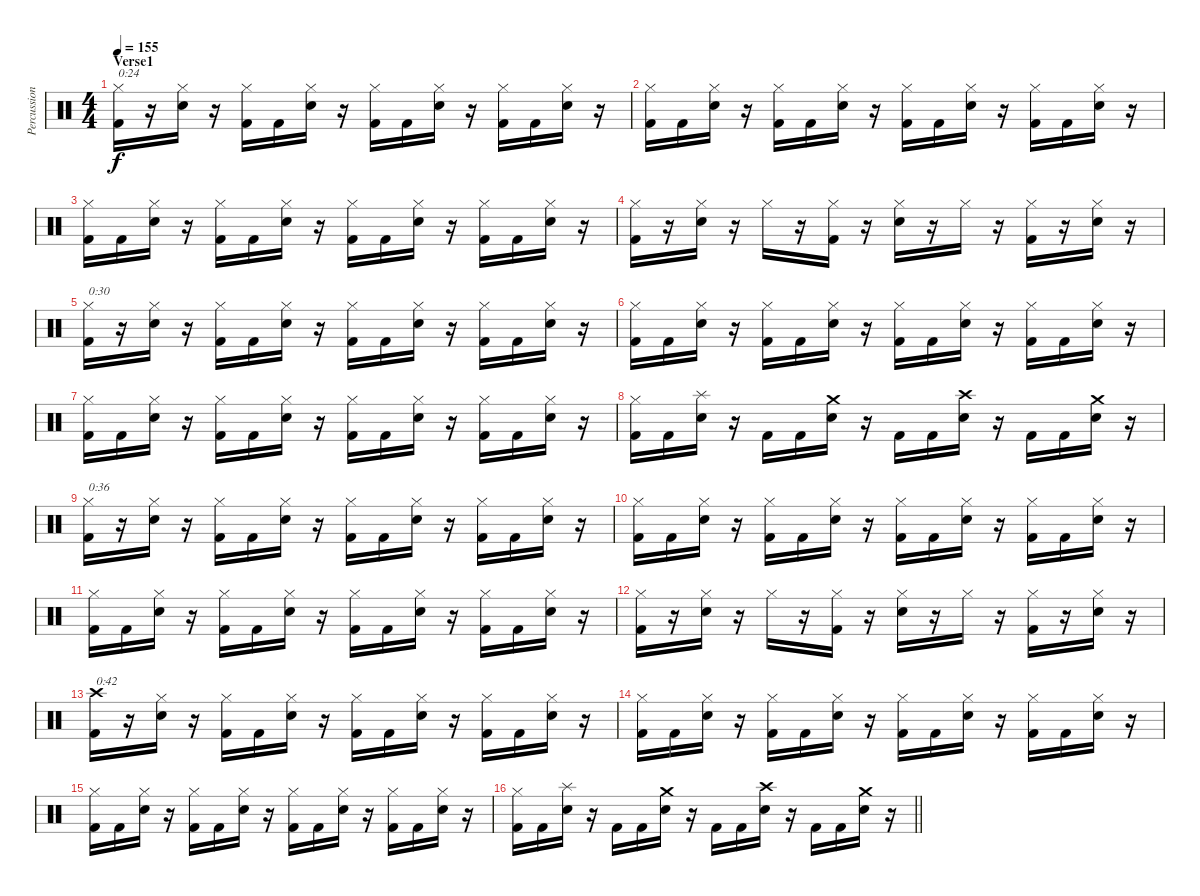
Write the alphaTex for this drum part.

\track ("Percussion" "Percussion") {instrument percussion}
\staff {score}
\articulation defaults
\ts (4 4)
\section ("" "Verse1")
\tempo 155
\clef neutral
\ks c
("Hi-Hat (closed)" "Kick (hit) 2").16{txt "0:24" dy f} r.16 ("Hi-Hat (closed)" "Electric Snare (hit)").16 r.16 ("Hi-Hat (closed)" "Kick (hit) 2").16 "Kick (hit) 2".16 ("Hi-Hat (closed)" "Electric Snare (hit)").16 r.16 ("Hi-Hat (closed)" "Kick (hit) 2").16 "Kick (hit) 2".16 ("Hi-Hat (closed)" "Electric Snare (hit)").16 r.16 ("Hi-Hat (closed)" "Kick (hit) 2").16 "Kick (hit) 2".16 ("Hi-Hat (closed)" "Electric Snare (hit)").16 r.16 |
("Hi-Hat (closed)" "Kick (hit) 2").16 "Kick (hit) 2".16 ("Hi-Hat (closed)" "Electric Snare (hit)").16 r.16 ("Hi-Hat (closed)" "Kick (hit) 2").16 "Kick (hit) 2".16 ("Hi-Hat (closed)" "Electric Snare (hit)").16 r.16 ("Hi-Hat (closed)" "Kick (hit) 2").16 "Kick (hit) 2".16 ("Hi-Hat (closed)" "Electric Snare (hit)").16 r.16 ("Hi-Hat (closed)" "Kick (hit) 2").16 "Kick (hit) 2".16 ("Hi-Hat (closed)" "Electric Snare (hit)").16 r.16 |
("Hi-Hat (closed)" "Kick (hit) 2").16 "Kick (hit) 2".16 ("Hi-Hat (closed)" "Electric Snare (hit)").16 r.16 ("Hi-Hat (closed)" "Kick (hit) 2").16 "Kick (hit) 2".16 ("Hi-Hat (closed)" "Electric Snare (hit)").16 r.16 ("Hi-Hat (closed)" "Kick (hit) 2").16 "Kick (hit) 2".16 ("Hi-Hat (closed)" "Electric Snare (hit)").16 r.16 ("Hi-Hat (closed)" "Kick (hit) 2").16 "Kick (hit) 2".16 ("Hi-Hat (closed)" "Electric Snare (hit)").16 r.16 |
("Hi-Hat (closed)" "Kick (hit) 2").16 r.16 ("Hi-Hat (closed)" "Electric Snare (hit)").16 r.16 "Hi-Hat (closed)".16 r.16 ("Hi-Hat (closed)" "Kick (hit) 2").16 r.16 ("Hi-Hat (closed)" "Electric Snare (hit)").16 r.16 "Hi-Hat (closed)".16 r.16 ("Hi-Hat (closed)" "Kick (hit) 2").16 r.16 ("Hi-Hat (closed)" "Electric Snare (hit)").16 r.16 |
("Hi-Hat (closed)" "Kick (hit) 2").16{txt "0:30"} r.16 ("Hi-Hat (closed)" "Electric Snare (hit)").16 r.16 ("Hi-Hat (closed)" "Kick (hit) 2").16 "Kick (hit) 2".16 ("Hi-Hat (closed)" "Electric Snare (hit)").16 r.16 ("Hi-Hat (closed)" "Kick (hit) 2").16 "Kick (hit) 2".16 ("Hi-Hat (closed)" "Electric Snare (hit)").16 r.16 ("Hi-Hat (closed)" "Kick (hit) 2").16 "Kick (hit) 2".16 ("Hi-Hat (closed)" "Electric Snare (hit)").16 r.16 |
("Hi-Hat (closed)" "Kick (hit) 2").16 "Kick (hit) 2".16 ("Hi-Hat (closed)" "Electric Snare (hit)").16 r.16 ("Hi-Hat (closed)" "Kick (hit) 2").16 "Kick (hit) 2".16 ("Hi-Hat (closed)" "Electric Snare (hit)").16 r.16 ("Hi-Hat (closed)" "Kick (hit) 2").16 "Kick (hit) 2".16 ("Hi-Hat (closed)" "Electric Snare (hit)").16 r.16 ("Hi-Hat (closed)" "Kick (hit) 2").16 "Kick (hit) 2".16 ("Hi-Hat (closed)" "Electric Snare (hit)").16 r.16 |
("Hi-Hat (closed)" "Kick (hit) 2").16 "Kick (hit) 2".16 ("Hi-Hat (closed)" "Electric Snare (hit)").16 r.16 ("Hi-Hat (closed)" "Kick (hit) 2").16 "Kick (hit) 2".16 ("Hi-Hat (closed)" "Electric Snare (hit)").16 r.16 ("Hi-Hat (closed)" "Kick (hit) 2").16 "Kick (hit) 2".16 ("Hi-Hat (closed)" "Electric Snare (hit)").16 r.16 ("Hi-Hat (closed)" "Kick (hit) 2").16 "Kick (hit) 2".16 ("Hi-Hat (closed)" "Electric Snare (hit)").16 r.16 |
("Hi-Hat (closed)" "Kick (hit) 2").16 "Kick (hit) 2".16 ("Splash (hit)" "Electric Snare (hit)").16 r.16 "Kick (hit) 2".16 "Kick (hit) 2".16 ("Crash medium (hit)" "Electric Snare (hit)").16 r.16 "Kick (hit) 2".16 "Kick (hit) 2".16 ("Crash high (hit)" "Electric Snare (hit)").16 r.16 "Kick (hit) 2".16 "Kick (hit) 2".16 ("Crash medium (hit)" "Electric Snare (hit)").16 r.16 |
("Hi-Hat (closed)" "Kick (hit) 2").16{txt "0:36"} r.16 ("Hi-Hat (closed)" "Electric Snare (hit)").16 r.16 ("Hi-Hat (closed)" "Kick (hit) 2").16 "Kick (hit) 2".16 ("Hi-Hat (closed)" "Electric Snare (hit)").16 r.16 ("Hi-Hat (closed)" "Kick (hit) 2").16 "Kick (hit) 2".16 ("Hi-Hat (closed)" "Electric Snare (hit)").16 r.16 ("Hi-Hat (closed)" "Kick (hit) 2").16 "Kick (hit) 2".16 ("Hi-Hat (closed)" "Electric Snare (hit)").16 r.16 |
("Hi-Hat (closed)" "Kick (hit) 2").16 "Kick (hit) 2".16 ("Hi-Hat (closed)" "Electric Snare (hit)").16 r.16 ("Hi-Hat (closed)" "Kick (hit) 2").16 "Kick (hit) 2".16 ("Hi-Hat (closed)" "Electric Snare (hit)").16 r.16 ("Hi-Hat (closed)" "Kick (hit) 2").16 "Kick (hit) 2".16 ("Hi-Hat (closed)" "Electric Snare (hit)").16 r.16 ("Hi-Hat (closed)" "Kick (hit) 2").16 "Kick (hit) 2".16 ("Hi-Hat (closed)" "Electric Snare (hit)").16 r.16 |
("Hi-Hat (closed)" "Kick (hit) 2").16 "Kick (hit) 2".16 ("Hi-Hat (closed)" "Electric Snare (hit)").16 r.16 ("Hi-Hat (closed)" "Kick (hit) 2").16 "Kick (hit) 2".16 ("Hi-Hat (closed)" "Electric Snare (hit)").16 r.16 ("Hi-Hat (closed)" "Kick (hit) 2").16 "Kick (hit) 2".16 ("Hi-Hat (closed)" "Electric Snare (hit)").16 r.16 ("Hi-Hat (closed)" "Kick (hit) 2").16 "Kick (hit) 2".16 ("Hi-Hat (closed)" "Electric Snare (hit)").16 r.16 |
("Hi-Hat (closed)" "Kick (hit) 2").16 r.16 ("Hi-Hat (closed)" "Electric Snare (hit)").16 r.16 "Hi-Hat (closed)".16 r.16 ("Hi-Hat (closed)" "Kick (hit) 2").16 r.16 ("Hi-Hat (closed)" "Electric Snare (hit)").16 r.16 "Hi-Hat (closed)".16 r.16 ("Hi-Hat (closed)" "Kick (hit) 2").16 r.16 ("Hi-Hat (closed)" "Electric Snare (hit)").16 r.16 |
("Crash high (hit)" "Kick (hit) 2").16{txt "0:42"} r.16 ("Hi-Hat (closed)" "Electric Snare (hit)").16 r.16 ("Hi-Hat (closed)" "Kick (hit) 2").16 "Kick (hit) 2".16 ("Hi-Hat (closed)" "Electric Snare (hit)").16 r.16 ("Hi-Hat (closed)" "Kick (hit) 2").16 "Kick (hit) 2".16 ("Hi-Hat (closed)" "Electric Snare (hit)").16 r.16 ("Hi-Hat (closed)" "Kick (hit) 2").16 "Kick (hit) 2".16 ("Hi-Hat (closed)" "Electric Snare (hit)").16 r.16 |
("Hi-Hat (closed)" "Kick (hit) 2").16 "Kick (hit) 2".16 ("Hi-Hat (closed)" "Electric Snare (hit)").16 r.16 ("Hi-Hat (closed)" "Kick (hit) 2").16 "Kick (hit) 2".16 ("Hi-Hat (closed)" "Electric Snare (hit)").16 r.16 ("Hi-Hat (closed)" "Kick (hit) 2").16 "Kick (hit) 2".16 ("Hi-Hat (closed)" "Electric Snare (hit)").16 r.16 ("Hi-Hat (closed)" "Kick (hit) 2").16 "Kick (hit) 2".16 ("Hi-Hat (closed)" "Electric Snare (hit)").16 r.16 |
("Hi-Hat (closed)" "Kick (hit) 2").16 "Kick (hit) 2".16 ("Hi-Hat (closed)" "Electric Snare (hit)").16 r.16 ("Hi-Hat (closed)" "Kick (hit) 2").16 "Kick (hit) 2".16 ("Hi-Hat (closed)" "Electric Snare (hit)").16 r.16 ("Hi-Hat (closed)" "Kick (hit) 2").16 "Kick (hit) 2".16 ("Hi-Hat (closed)" "Electric Snare (hit)").16 r.16 ("Hi-Hat (closed)" "Kick (hit) 2").16 "Kick (hit) 2".16 ("Hi-Hat (closed)" "Electric Snare (hit)").16 r.16 |
\barLineRight lightlight
("Hi-Hat (closed)" "Kick (hit) 2").16 "Kick (hit) 2".16 ("Splash (hit)" "Electric Snare (hit)").16 r.16 "Kick (hit) 2".16 "Kick (hit) 2".16 ("Crash medium (hit)" "Electric Snare (hit)").16 r.16 "Kick (hit) 2".16 "Kick (hit) 2".16 ("Crash high (hit)" "Electric Snare (hit)").16 r.16 "Kick (hit) 2".16 "Kick (hit) 2".16 ("Crash medium (hit)" "Electric Snare (hit)").16 r.16
